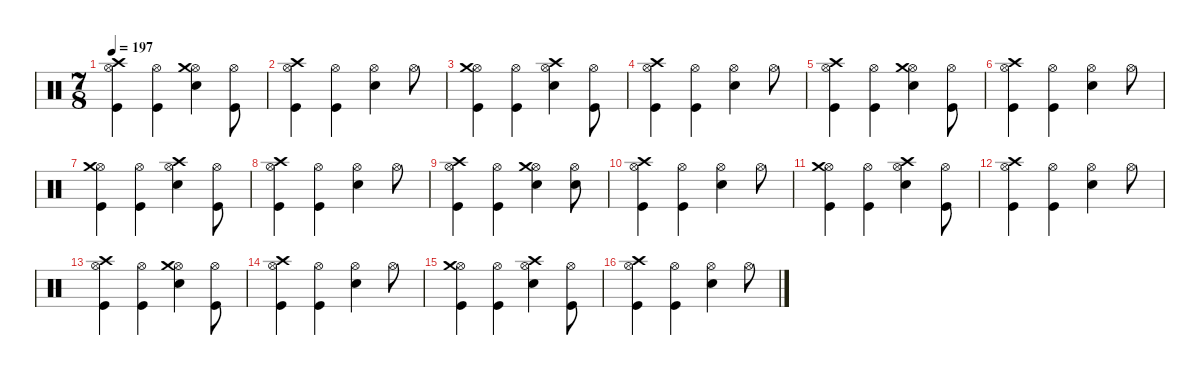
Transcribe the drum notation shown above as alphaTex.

\defaultSystemsLayout 4
\hideDynamics
\bracketExtendMode nobrackets
\singleTrackTrackNamePolicy hidden
\multiTrackTrackNamePolicy hidden
\firstSystemTrackNameMode fullname
\firstSystemTrackNameOrientation horizontal
\otherSystemsTrackNameOrientation horizontal
\track ("Drums" "drm.") {defaultSystemsLayout 4 instrument percussion}
\staff {score}
\articulation defaults
\ts (7 8)
\tempo 197
\clef neutral
\ks c
("Hi-Hat (open)" "Crash high (hit)" "Kick (hit)").4{dy f beam Down} ("Hi-Hat (open)" "Kick (hit)").4{beam Down} ("Hi-Hat (open)" "Crash medium (hit)" "Snare (hit) 2").4{beam Down} ("Hi-Hat (open)" "Kick (hit)").8{beam Down} |
("Hi-Hat (open)" "Crash high (hit)" "Kick (hit)").4{beam Down} ("Hi-Hat (open)" "Kick (hit)").4{beam Down} ("Hi-Hat (open)" "Snare (hit) 2").4{beam Down} "Hi-Hat (open)".8{beam Down} |
("Hi-Hat (open)" "Crash medium (hit)" "Kick (hit)").4{beam Down} ("Hi-Hat (open)" "Kick (hit)").4{beam Down} ("Hi-Hat (open)" "Crash high (hit)" "Snare (hit) 2").4{beam Down} ("Hi-Hat (open)" "Kick (hit)").8{beam Down} |
("Hi-Hat (open)" "Crash high (hit)" "Kick (hit)").4{beam Down} ("Hi-Hat (open)" "Kick (hit)").4{beam Down} ("Hi-Hat (open)" "Snare (hit) 2").4{beam Down} "Hi-Hat (open)".8{beam Down} |
("Hi-Hat (open)" "Crash high (hit)" "Kick (hit)").4{beam Down} ("Hi-Hat (open)" "Kick (hit)").4{beam Down} ("Hi-Hat (open)" "Crash medium (hit)" "Snare (hit) 2").4{beam Down} ("Hi-Hat (open)" "Kick (hit)").8{beam Down} |
("Hi-Hat (open)" "Crash high (hit)" "Kick (hit)").4{beam Down} ("Hi-Hat (open)" "Kick (hit)").4{beam Down} ("Hi-Hat (open)" "Snare (hit) 2").4{beam Down} "Hi-Hat (open)".8{beam Down} |
("Hi-Hat (open)" "Crash medium (hit)" "Kick (hit)").4{beam Down} ("Hi-Hat (open)" "Kick (hit)").4{beam Down} ("Hi-Hat (open)" "Crash high (hit)" "Snare (hit) 2").4{beam Down} ("Hi-Hat (open)" "Kick (hit)").8{beam Down} |
("Hi-Hat (open)" "Crash high (hit)" "Kick (hit)").4{beam Down} ("Hi-Hat (open)" "Kick (hit)").4{beam Down} ("Hi-Hat (open)" "Snare (hit) 2").4{beam Down} "Hi-Hat (open)".8{beam Down} |
("Hi-Hat (open)" "Crash high (hit)" "Kick (hit)").4{beam Down} ("Hi-Hat (open)" "Kick (hit)").4{beam Down} ("Hi-Hat (open)" "Crash medium (hit)" "Snare (hit) 2").4{beam Down} ("Hi-Hat (open)" "Snare (hit) 2").8{beam Down} |
("Hi-Hat (open)" "Crash high (hit)" "Kick (hit)").4{beam Down} ("Hi-Hat (open)" "Kick (hit)").4{beam Down} ("Hi-Hat (open)" "Snare (hit) 2").4{beam Down} "Hi-Hat (open)".8{beam Down} |
("Hi-Hat (open)" "Crash medium (hit)" "Kick (hit)").4{beam Down} ("Hi-Hat (open)" "Kick (hit)").4{beam Down} ("Hi-Hat (open)" "Crash high (hit)" "Snare (hit) 2").4{beam Down} ("Hi-Hat (open)" "Kick (hit)").8{beam Down} |
("Hi-Hat (open)" "Crash high (hit)" "Kick (hit)").4{beam Down} ("Hi-Hat (open)" "Kick (hit)").4{beam Down} ("Hi-Hat (open)" "Snare (hit) 2").4{beam Down} "Hi-Hat (open)".8{beam Down} |
("Hi-Hat (open)" "Crash high (hit)" "Kick (hit)").4{beam Down} ("Hi-Hat (open)" "Kick (hit)").4{beam Down} ("Hi-Hat (open)" "Crash medium (hit)" "Snare (hit) 2").4{beam Down} ("Hi-Hat (open)" "Kick (hit)").8{beam Down} |
("Hi-Hat (open)" "Crash high (hit)" "Kick (hit)").4{beam Down} ("Hi-Hat (open)" "Kick (hit)").4{beam Down} ("Hi-Hat (open)" "Snare (hit) 2").4{beam Down} "Hi-Hat (open)".8{beam Down} |
("Hi-Hat (open)" "Crash medium (hit)" "Kick (hit)").4{beam Down} ("Hi-Hat (open)" "Kick (hit)").4{beam Down} ("Hi-Hat (open)" "Crash high (hit)" "Snare (hit) 2").4{beam Down} ("Hi-Hat (open)" "Kick (hit)").8{beam Down} |
("Hi-Hat (open)" "Crash high (hit)" "Kick (hit)").4{beam Down} ("Hi-Hat (open)" "Kick (hit)").4{beam Down} ("Hi-Hat (open)" "Snare (hit) 2").4{beam Down} "Hi-Hat (open)".8{beam Down}
